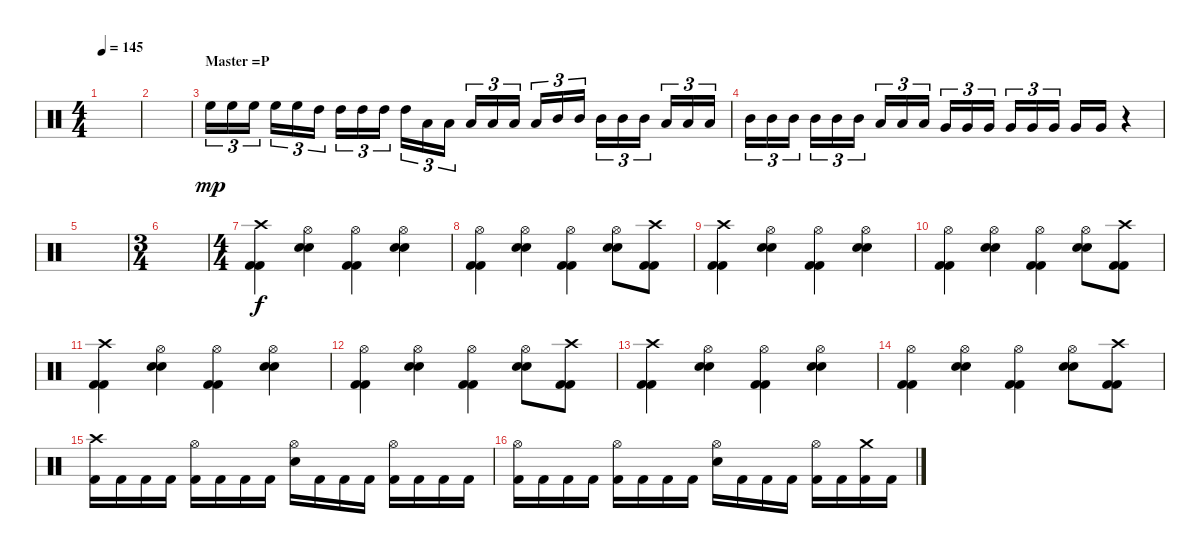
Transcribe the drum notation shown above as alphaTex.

\track "" {instrument percussion}
\staff {score}
\articulation defaults
\ts (4 4)
\tempo 145
\clef neutral
\ks c
|
|
\section ("" "Master =P")
"High Floor Tom (hit)".16{tu (3 2) dy mp} "High Floor Tom (hit)".16{tu (3 2)} "High Floor Tom (hit)".16{tu (3 2)} "High Floor Tom (hit)".16{tu (3 2)} "High Floor Tom (hit)".16{tu (3 2)} "High Tom (hit)".16{tu (3 2)} "High Tom (hit)".16{tu (3 2)} "High Tom (hit)".16{tu (3 2)} "High Tom (hit)".16{tu (3 2)} "High Tom (hit)".16{tu (3 2)} "Low Tom (hit)".16{tu (3 2)} "Low Tom (hit)".16{tu (3 2)} "Low Tom (hit)".16{tu (3 2)} "Low Tom (hit)".16{tu (3 2)} "Low Tom (hit)".16{tu (3 2)} "Low Tom (hit)".16{tu (3 2)} "Mid Tom (hit)".16{tu (3 2)} "Mid Tom (hit)".16{tu (3 2)} "Mid Tom (hit)".16{tu (3 2)} "Mid Tom (hit)".16{tu (3 2)} "Mid Tom (hit)".16{tu (3 2)} "Low Tom (hit)".16{tu (3 2)} "Low Tom (hit)".16{tu (3 2)} "Low Tom (hit)".16{tu (3 2)} |
"Mid Tom (hit)".16{tu (3 2)} "Mid Tom (hit)".16{tu (3 2)} "Mid Tom (hit)".16{tu (3 2)} "Mid Tom (hit)".16{tu (3 2)} "Mid Tom (hit)".16{tu (3 2)} "Mid Tom (hit)".16{tu (3 2)} "Low Tom (hit)".16{tu (3 2)} "Low Tom (hit)".16{tu (3 2)} "Low Tom (hit)".16{tu (3 2)} "Very Low Tom (hit)".16{tu (3 2)} "Very Low Tom (hit)".16{tu (3 2)} "Very Low Tom (hit)".16{tu (3 2)} "Very Low Tom (hit)".16{tu (3 2)} "Very Low Tom (hit)".16{tu (3 2)} "Very Low Tom (hit)".16{tu (3 2)} "Very Low Tom (hit)".16 "Very Low Tom (hit)".16 r.4 |
|
\ts (3 4)
|
\ts (4 4)
("Crash high (hit)" "Kick (hit) 2" "Kick (hit) 2").4{dy f} ("Hi-Hat (open)" "Snare (hit) 2" "Snare (hit) 2").4 ("Hi-Hat (open)" "Kick (hit) 2" "Kick (hit) 2").4 ("Hi-Hat (open)" "Snare (hit) 2" "Snare (hit) 2").4 |
("Hi-Hat (open)" "Kick (hit) 2" "Kick (hit) 2").4 ("Hi-Hat (open)" "Snare (hit) 2" "Snare (hit) 2").4 ("Hi-Hat (open)" "Kick (hit) 2" "Kick (hit) 2").4 ("Hi-Hat (open)" "Snare (hit) 2" "Snare (hit) 2").8 ("Crash high (hit)" "Kick (hit) 2" "Kick (hit) 2").8 |
("Crash high (hit)" "Kick (hit) 2" "Kick (hit) 2").4 ("Hi-Hat (open)" "Snare (hit) 2" "Snare (hit) 2").4 ("Hi-Hat (open)" "Kick (hit) 2" "Kick (hit) 2").4 ("Hi-Hat (open)" "Snare (hit) 2" "Snare (hit) 2").4 |
("Hi-Hat (open)" "Kick (hit) 2" "Kick (hit) 2").4 ("Hi-Hat (open)" "Snare (hit) 2" "Snare (hit) 2").4 ("Hi-Hat (open)" "Kick (hit) 2" "Kick (hit) 2").4 ("Hi-Hat (open)" "Snare (hit) 2" "Snare (hit) 2").8 ("Crash high (hit)" "Kick (hit) 2" "Kick (hit) 2").8 |
("Crash high (hit)" "Kick (hit) 2" "Kick (hit) 2").4 ("Hi-Hat (open)" "Snare (hit) 2" "Snare (hit) 2").4 ("Hi-Hat (open)" "Kick (hit) 2" "Kick (hit) 2").4 ("Hi-Hat (open)" "Snare (hit) 2" "Snare (hit) 2").4 |
("Hi-Hat (open)" "Kick (hit) 2" "Kick (hit) 2").4 ("Hi-Hat (open)" "Snare (hit) 2" "Snare (hit) 2").4 ("Hi-Hat (open)" "Kick (hit) 2" "Kick (hit) 2").4 ("Hi-Hat (open)" "Snare (hit) 2" "Snare (hit) 2").8 ("Crash high (hit)" "Kick (hit) 2" "Kick (hit) 2").8 |
("Crash high (hit)" "Kick (hit) 2" "Kick (hit) 2").4 ("Hi-Hat (open)" "Snare (hit) 2" "Snare (hit) 2").4 ("Hi-Hat (open)" "Kick (hit) 2" "Kick (hit) 2").4 ("Hi-Hat (open)" "Snare (hit) 2" "Snare (hit) 2").4 |
("Hi-Hat (open)" "Kick (hit) 2" "Kick (hit) 2").4 ("Hi-Hat (open)" "Snare (hit) 2" "Snare (hit) 2").4 ("Hi-Hat (open)" "Kick (hit) 2" "Kick (hit) 2").4 ("Hi-Hat (open)" "Snare (hit) 2" "Snare (hit) 2").8 ("Crash high (hit)" "Kick (hit) 2" "Kick (hit) 2").8 |
("Crash high (hit)" "Kick (hit) 2").16 "Kick (hit) 2".16 "Kick (hit) 2".16 "Kick (hit) 2".16 ("Hi-Hat (open)" "Kick (hit) 2").16 "Kick (hit) 2".16 "Kick (hit) 2".16 "Kick (hit) 2".16 ("Hi-Hat (open)" "Snare (hit) 2").16 "Kick (hit) 2".16 "Kick (hit) 2".16 "Kick (hit) 2".16 ("Hi-Hat (open)" "Kick (hit) 2").16 "Kick (hit) 2".16 "Kick (hit) 2".16 "Kick (hit) 2".16 |
("Hi-Hat (open)" "Kick (hit) 2").16 "Kick (hit) 2".16 "Kick (hit) 2".16 "Kick (hit) 2".16 ("Hi-Hat (open)" "Kick (hit) 2").16 "Kick (hit) 2".16 "Kick (hit) 2".16 "Kick (hit) 2".16 ("Hi-Hat (open)" "Snare (hit) 2").16 "Kick (hit) 2".16 "Kick (hit) 2".16 "Kick (hit) 2".16 ("Hi-Hat (open)" "Kick (hit) 2").16 "Kick (hit) 2".16 ("Crash medium (hit)" "Kick (hit) 2").16 "Kick (hit) 2".16
